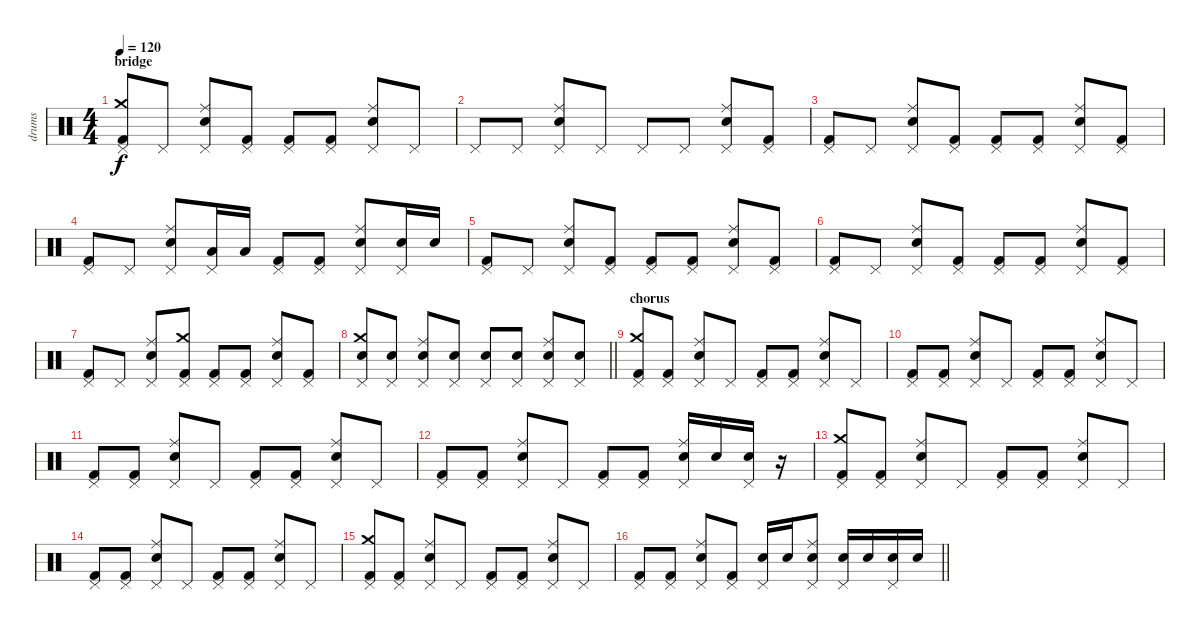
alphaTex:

\track ("drums" "drums") {instrument percussion}
\staff {score}
\articulation defaults
\ts (4 4)
\section ("" "bridge")
\tempo 120
\clef neutral
\ks c
("Pedal Hi-Hat (hit)" "Crash medium (hit)" "Kick (hit) 2").8{dy f} "Pedal Hi-Hat (hit)".8 ("Pedal Hi-Hat (hit)" "Ride (middle)" "Snare (hit) 2").8 ("Pedal Hi-Hat (hit)" "Kick (hit) 2").8 ("Pedal Hi-Hat (hit)" "Kick (hit) 2").8 ("Pedal Hi-Hat (hit)" "Kick (hit) 2").8 ("Pedal Hi-Hat (hit)" "Ride (middle)" "Snare (hit) 2").8 "Pedal Hi-Hat (hit)".8 |
"Pedal Hi-Hat (hit)".8 "Pedal Hi-Hat (hit)".8 ("Pedal Hi-Hat (hit)" "Ride (middle)" "Snare (hit) 2").8 "Pedal Hi-Hat (hit)".8 "Pedal Hi-Hat (hit)".8 "Pedal Hi-Hat (hit)".8 ("Pedal Hi-Hat (hit)" "Ride (middle)" "Snare (hit) 2").8 ("Pedal Hi-Hat (hit)" "Kick (hit) 2").8 |
("Pedal Hi-Hat (hit)" "Kick (hit) 2").8 "Pedal Hi-Hat (hit)".8 ("Pedal Hi-Hat (hit)" "Ride (middle)" "Snare (hit) 2").8 ("Pedal Hi-Hat (hit)" "Kick (hit) 2").8 ("Pedal Hi-Hat (hit)" "Kick (hit) 2").8 ("Pedal Hi-Hat (hit)" "Kick (hit) 2").8 ("Pedal Hi-Hat (hit)" "Ride (middle)" "Snare (hit) 2").8 ("Pedal Hi-Hat (hit)" "Kick (hit) 2").8 |
("Pedal Hi-Hat (hit)" "Kick (hit) 2").8 "Pedal Hi-Hat (hit)".8 ("Pedal Hi-Hat (hit)" "Ride (middle)" "Snare (hit) 2").8 ("Pedal Hi-Hat (hit)" "Low Tom (hit)").16 "Low Tom (hit)".16 ("Pedal Hi-Hat (hit)" "Kick (hit) 2").8 ("Pedal Hi-Hat (hit)" "Kick (hit) 2").8 ("Pedal Hi-Hat (hit)" "Ride (middle)" "Snare (hit) 2").8 ("Pedal Hi-Hat (hit)" "Snare (hit) 2").16 "Snare (hit) 2".16 |
("Pedal Hi-Hat (hit)" "Kick (hit) 2").8 "Pedal Hi-Hat (hit)".8 ("Pedal Hi-Hat (hit)" "Ride (middle)" "Snare (hit) 2").8 ("Pedal Hi-Hat (hit)" "Kick (hit) 2").8 ("Pedal Hi-Hat (hit)" "Kick (hit) 2").8 ("Pedal Hi-Hat (hit)" "Kick (hit) 2").8 ("Pedal Hi-Hat (hit)" "Ride (middle)" "Snare (hit) 2").8 ("Pedal Hi-Hat (hit)" "Kick (hit) 2").8 |
("Pedal Hi-Hat (hit)" "Kick (hit) 2").8 "Pedal Hi-Hat (hit)".8 ("Pedal Hi-Hat (hit)" "Ride (middle)" "Snare (hit) 2").8 ("Pedal Hi-Hat (hit)" "Kick (hit) 2").8 ("Pedal Hi-Hat (hit)" "Kick (hit) 2").8 ("Pedal Hi-Hat (hit)" "Kick (hit) 2").8 ("Pedal Hi-Hat (hit)" "Ride (middle)" "Snare (hit) 2").8 ("Pedal Hi-Hat (hit)" "Kick (hit) 2").8 |
("Pedal Hi-Hat (hit)" "Kick (hit) 2").8 "Pedal Hi-Hat (hit)".8 ("Pedal Hi-Hat (hit)" "Ride (middle)" "Snare (hit) 2").8 ("Pedal Hi-Hat (hit)" "Crash medium (hit)" "Kick (hit) 2").8 ("Pedal Hi-Hat (hit)" "Kick (hit) 2").8 ("Pedal Hi-Hat (hit)" "Kick (hit) 2").8 ("Pedal Hi-Hat (hit)" "Ride (middle)" "Snare (hit) 2").8 ("Pedal Hi-Hat (hit)" "Kick (hit) 2").8 |
\barLineRight lightlight
("Pedal Hi-Hat (hit)" "Crash medium (hit)" "Snare (hit) 2").8 ("Pedal Hi-Hat (hit)" "Snare (hit) 2").8 ("Pedal Hi-Hat (hit)" "Ride (middle)" "Snare (hit) 2").8 ("Pedal Hi-Hat (hit)" "Snare (hit) 2").8 ("Pedal Hi-Hat (hit)" "Snare (hit) 2").8 ("Pedal Hi-Hat (hit)" "Snare (hit) 2").8 ("Pedal Hi-Hat (hit)" "Ride (middle)" "Snare (hit) 2").8 ("Pedal Hi-Hat (hit)" "Snare (hit) 2").8 |
\section ("" "chorus")
("Pedal Hi-Hat (hit)" "Crash medium (hit)" "Kick (hit) 2").8 ("Pedal Hi-Hat (hit)" "Kick (hit) 2").8 ("Pedal Hi-Hat (hit)" "Ride (middle)" "Snare (hit) 2").8 "Pedal Hi-Hat (hit)".8 ("Pedal Hi-Hat (hit)" "Kick (hit) 2").8 ("Pedal Hi-Hat (hit)" "Kick (hit) 2").8 ("Pedal Hi-Hat (hit)" "Ride (middle)" "Snare (hit) 2").8 "Pedal Hi-Hat (hit)".8 |
("Pedal Hi-Hat (hit)" "Kick (hit) 2").8 ("Pedal Hi-Hat (hit)" "Kick (hit) 2").8 ("Pedal Hi-Hat (hit)" "Ride (middle)" "Snare (hit) 2").8 "Pedal Hi-Hat (hit)".8 ("Pedal Hi-Hat (hit)" "Kick (hit) 2").8 ("Pedal Hi-Hat (hit)" "Kick (hit) 2").8 ("Pedal Hi-Hat (hit)" "Ride (middle)" "Snare (hit) 2").8 "Pedal Hi-Hat (hit)".8 |
("Pedal Hi-Hat (hit)" "Kick (hit) 2").8 ("Pedal Hi-Hat (hit)" "Kick (hit) 2").8 ("Pedal Hi-Hat (hit)" "Ride (middle)" "Snare (hit) 2").8 "Pedal Hi-Hat (hit)".8 ("Pedal Hi-Hat (hit)" "Kick (hit) 2").8 ("Pedal Hi-Hat (hit)" "Kick (hit) 2").8 ("Pedal Hi-Hat (hit)" "Ride (middle)" "Snare (hit) 2").8 "Pedal Hi-Hat (hit)".8 |
("Pedal Hi-Hat (hit)" "Kick (hit) 2").8 ("Pedal Hi-Hat (hit)" "Kick (hit) 2").8 ("Pedal Hi-Hat (hit)" "Ride (middle)" "Snare (hit) 2").8 "Pedal Hi-Hat (hit)".8 ("Pedal Hi-Hat (hit)" "Kick (hit) 2").8 ("Pedal Hi-Hat (hit)" "Kick (hit) 2").8 ("Pedal Hi-Hat (hit)" "Ride (middle)" "Snare (hit) 2").16 "Snare (hit) 2".16 ("Pedal Hi-Hat (hit)" "Snare (hit) 2").16 r.16 |
("Pedal Hi-Hat (hit)" "Crash medium (hit)" "Kick (hit) 2").8 ("Pedal Hi-Hat (hit)" "Kick (hit) 2").8 ("Pedal Hi-Hat (hit)" "Ride (middle)" "Snare (hit) 2").8 "Pedal Hi-Hat (hit)".8 ("Pedal Hi-Hat (hit)" "Kick (hit) 2").8 ("Pedal Hi-Hat (hit)" "Kick (hit) 2").8 ("Pedal Hi-Hat (hit)" "Ride (middle)" "Snare (hit) 2").8 "Pedal Hi-Hat (hit)".8 |
("Pedal Hi-Hat (hit)" "Kick (hit) 2").8 ("Pedal Hi-Hat (hit)" "Kick (hit) 2").8 ("Pedal Hi-Hat (hit)" "Ride (middle)" "Snare (hit) 2").8 "Pedal Hi-Hat (hit)".8 ("Pedal Hi-Hat (hit)" "Kick (hit) 2").8 ("Pedal Hi-Hat (hit)" "Kick (hit) 2").8 ("Pedal Hi-Hat (hit)" "Ride (middle)" "Snare (hit) 2").8 "Pedal Hi-Hat (hit)".8 |
("Pedal Hi-Hat (hit)" "Crash medium (hit)" "Kick (hit) 2").8 ("Pedal Hi-Hat (hit)" "Kick (hit) 2").8 ("Pedal Hi-Hat (hit)" "Ride (middle)" "Snare (hit) 2").8 "Pedal Hi-Hat (hit)".8 ("Pedal Hi-Hat (hit)" "Kick (hit) 2").8 ("Pedal Hi-Hat (hit)" "Kick (hit) 2").8 ("Pedal Hi-Hat (hit)" "Ride (middle)" "Snare (hit) 2").8 "Pedal Hi-Hat (hit)".8 |
\barLineRight lightlight
("Pedal Hi-Hat (hit)" "Kick (hit) 2").8 ("Pedal Hi-Hat (hit)" "Kick (hit) 2").8 ("Pedal Hi-Hat (hit)" "Ride (middle)" "Snare (hit) 2").8 ("Pedal Hi-Hat (hit)" "Kick (hit) 2").8 ("Pedal Hi-Hat (hit)" "Snare (hit) 2").16 "Snare (hit) 2".16 ("Pedal Hi-Hat (hit)" "Ride (middle)" "Snare (hit) 2").8 ("Pedal Hi-Hat (hit)" "Snare (hit) 2").16 "Snare (hit) 2".16 ("Pedal Hi-Hat (hit)" "Snare (hit) 2").16 "Snare (hit) 2".16
